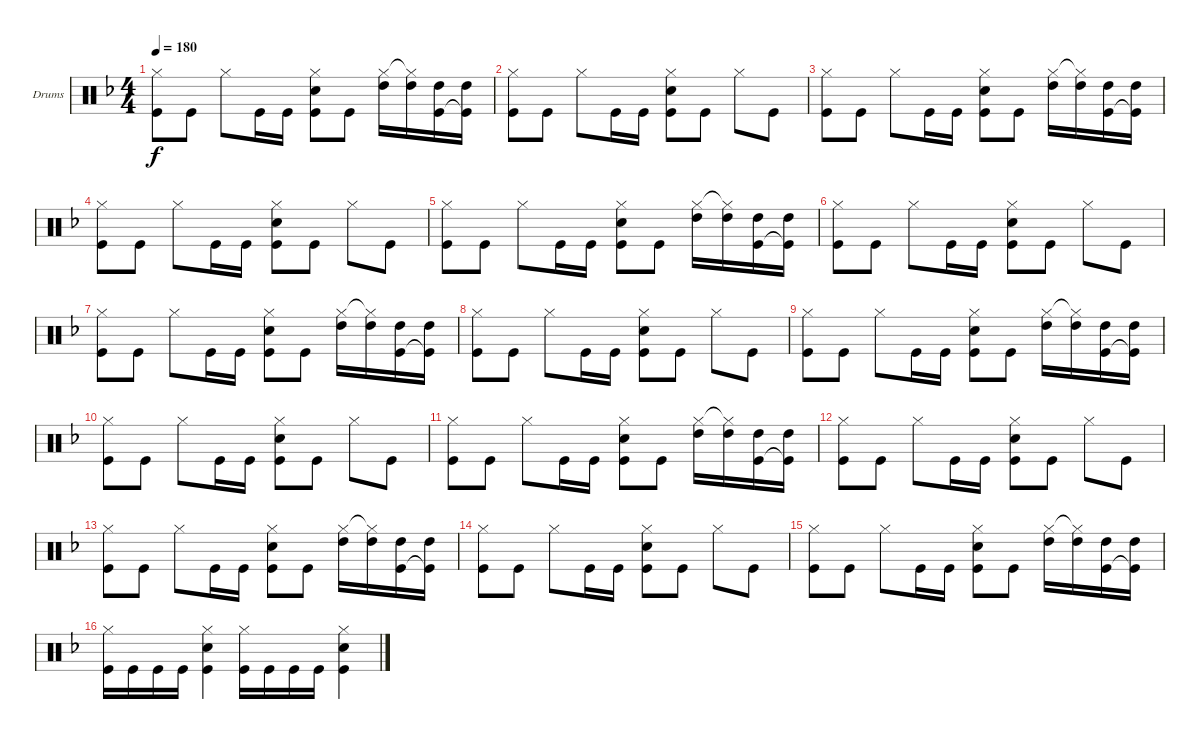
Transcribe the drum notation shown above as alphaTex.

\bracketExtendMode groupsimilarinstruments
\firstSystemTrackNameOrientation horizontal
\otherSystemsTrackNameOrientation horizontal
\track ("Drumkit" "Drums") {instrument percussion}
\staff {score}
\articulation defaults
\ts (4 4)
\tempo 180
\clef neutral
\ks dminor
("Hi-Hat (closed)" "Kick (hit)").8{dy f} "Kick (hit)".8 "Hi-Hat (closed)".8 "Kick (hit)".16 "Kick (hit)".16 ("Hi-Hat (closed)" "Snare (hit) 2" "Kick (hit)").8 "Kick (hit)".8 ("Hi-Hat (closed)" "High Tom (hit)").16 ("Hi-Hat (closed)"{t} "High Tom (hit)").16 ("Kick (hit)" "High Tom (hit)").16 ("Kick (hit)"{t} "High Tom (hit)").16 |
("Hi-Hat (closed)" "Kick (hit)").8 "Kick (hit)".8 "Hi-Hat (closed)".8 "Kick (hit)".16 "Kick (hit)".16 ("Hi-Hat (closed)" "Snare (hit) 2" "Kick (hit)").8 "Kick (hit)".8 "Hi-Hat (closed)".8 "Kick (hit)".8 |
("Hi-Hat (closed)" "Kick (hit)").8 "Kick (hit)".8 "Hi-Hat (closed)".8 "Kick (hit)".16 "Kick (hit)".16 ("Hi-Hat (closed)" "Snare (hit) 2" "Kick (hit)").8 "Kick (hit)".8 ("Hi-Hat (closed)" "High Tom (hit)").16 ("Hi-Hat (closed)"{t} "High Tom (hit)").16 ("Kick (hit)" "High Tom (hit)").16 ("Kick (hit)"{t} "High Tom (hit)").16 |
("Hi-Hat (closed)" "Kick (hit)").8 "Kick (hit)".8 "Hi-Hat (closed)".8 "Kick (hit)".16 "Kick (hit)".16 ("Hi-Hat (closed)" "Snare (hit) 2" "Kick (hit)").8 "Kick (hit)".8 "Hi-Hat (closed)".8 "Kick (hit)".8 |
("Hi-Hat (closed)" "Kick (hit)").8 "Kick (hit)".8 "Hi-Hat (closed)".8 "Kick (hit)".16 "Kick (hit)".16 ("Hi-Hat (closed)" "Snare (hit) 2" "Kick (hit)").8 "Kick (hit)".8 ("Hi-Hat (closed)" "High Tom (hit)").16 ("Hi-Hat (closed)"{t} "High Tom (hit)").16 ("Kick (hit)" "High Tom (hit)").16 ("Kick (hit)"{t} "High Tom (hit)").16 |
("Hi-Hat (closed)" "Kick (hit)").8 "Kick (hit)".8 "Hi-Hat (closed)".8 "Kick (hit)".16 "Kick (hit)".16 ("Hi-Hat (closed)" "Snare (hit) 2" "Kick (hit)").8 "Kick (hit)".8 "Hi-Hat (closed)".8 "Kick (hit)".8 |
("Hi-Hat (closed)" "Kick (hit)").8 "Kick (hit)".8 "Hi-Hat (closed)".8 "Kick (hit)".16 "Kick (hit)".16 ("Hi-Hat (closed)" "Snare (hit) 2" "Kick (hit)").8 "Kick (hit)".8 ("Hi-Hat (closed)" "High Tom (hit)").16 ("Hi-Hat (closed)"{t} "High Tom (hit)").16 ("Kick (hit)" "High Tom (hit)").16 ("Kick (hit)"{t} "High Tom (hit)").16 |
("Hi-Hat (closed)" "Kick (hit)").8 "Kick (hit)".8 "Hi-Hat (closed)".8 "Kick (hit)".16 "Kick (hit)".16 ("Hi-Hat (closed)" "Snare (hit) 2" "Kick (hit)").8 "Kick (hit)".8 "Hi-Hat (closed)".8 "Kick (hit)".8 |
("Hi-Hat (closed)" "Kick (hit)").8 "Kick (hit)".8 "Hi-Hat (closed)".8 "Kick (hit)".16 "Kick (hit)".16 ("Hi-Hat (closed)" "Snare (hit) 2" "Kick (hit)").8 "Kick (hit)".8 ("Hi-Hat (closed)" "High Tom (hit)").16 ("Hi-Hat (closed)"{t} "High Tom (hit)").16 ("Kick (hit)" "High Tom (hit)").16 ("Kick (hit)"{t} "High Tom (hit)").16 |
("Hi-Hat (closed)" "Kick (hit)").8 "Kick (hit)".8 "Hi-Hat (closed)".8 "Kick (hit)".16 "Kick (hit)".16 ("Hi-Hat (closed)" "Snare (hit) 2" "Kick (hit)").8 "Kick (hit)".8 "Hi-Hat (closed)".8 "Kick (hit)".8 |
("Hi-Hat (closed)" "Kick (hit)").8 "Kick (hit)".8 "Hi-Hat (closed)".8 "Kick (hit)".16 "Kick (hit)".16 ("Hi-Hat (closed)" "Snare (hit) 2" "Kick (hit)").8 "Kick (hit)".8 ("Hi-Hat (closed)" "High Tom (hit)").16 ("Hi-Hat (closed)"{t} "High Tom (hit)").16 ("Kick (hit)" "High Tom (hit)").16 ("Kick (hit)"{t} "High Tom (hit)").16 |
("Hi-Hat (closed)" "Kick (hit)").8 "Kick (hit)".8 "Hi-Hat (closed)".8 "Kick (hit)".16 "Kick (hit)".16 ("Hi-Hat (closed)" "Snare (hit) 2" "Kick (hit)").8 "Kick (hit)".8 "Hi-Hat (closed)".8 "Kick (hit)".8 |
("Hi-Hat (closed)" "Kick (hit)").8 "Kick (hit)".8 "Hi-Hat (closed)".8 "Kick (hit)".16 "Kick (hit)".16 ("Hi-Hat (closed)" "Snare (hit) 2" "Kick (hit)").8 "Kick (hit)".8 ("Hi-Hat (closed)" "High Tom (hit)").16 ("Hi-Hat (closed)"{t} "High Tom (hit)").16 ("Kick (hit)" "High Tom (hit)").16 ("Kick (hit)"{t} "High Tom (hit)").16 |
("Hi-Hat (closed)" "Kick (hit)").8 "Kick (hit)".8 "Hi-Hat (closed)".8 "Kick (hit)".16 "Kick (hit)".16 ("Hi-Hat (closed)" "Snare (hit) 2" "Kick (hit)").8 "Kick (hit)".8 "Hi-Hat (closed)".8 "Kick (hit)".8 |
("Hi-Hat (closed)" "Kick (hit)").8 "Kick (hit)".8 "Hi-Hat (closed)".8 "Kick (hit)".16 "Kick (hit)".16 ("Hi-Hat (closed)" "Snare (hit) 2" "Kick (hit)").8 "Kick (hit)".8 ("Hi-Hat (closed)" "High Tom (hit)").16 ("Hi-Hat (closed)"{t} "High Tom (hit)").16 ("Kick (hit)" "High Tom (hit)").16 ("Kick (hit)"{t} "High Tom (hit)").16 |
("Hi-Hat (closed)" "Kick (hit)").16 "Kick (hit)".16 "Kick (hit)".16 "Kick (hit)".16 ("Hi-Hat (closed)" "Snare (hit) 2" "Kick (hit)").4 ("Hi-Hat (closed)" "Kick (hit)").16 "Kick (hit)".16 "Kick (hit)".16 "Kick (hit)".16 ("Hi-Hat (closed)" "Snare (hit) 2" "Kick (hit)").4
